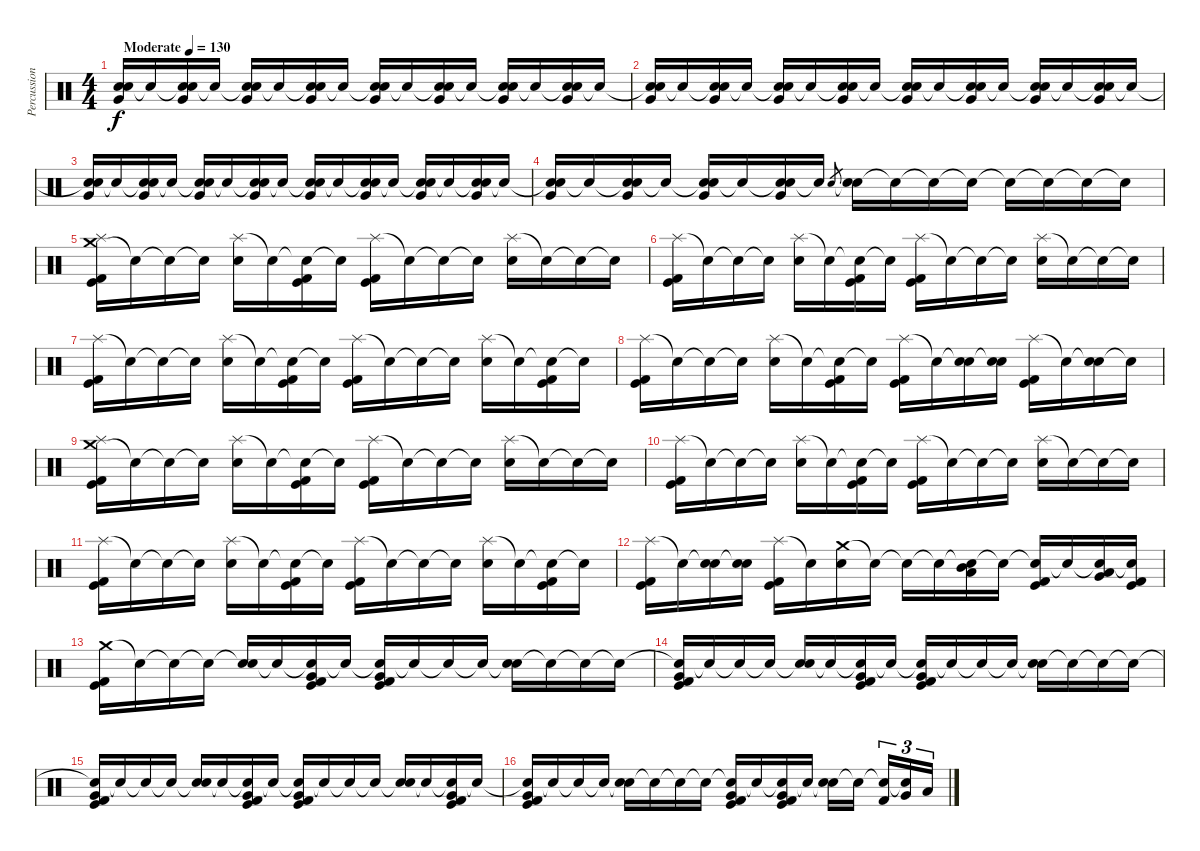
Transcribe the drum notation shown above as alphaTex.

\track ("Percussion" "Percussion") {instrument percussion}
\staff {score}
\articulation defaults
\ts (4 4)
\tempo (130 "Moderate")
\clef neutral
\ks c
("Snare (hit)" "Electric Snare (hit)" "Very Low Tom (hit)").16{dy f volume 4} "Snare (hit)"{t}.16 ("Snare (hit)"{t} "Electric Snare (hit)" "Very Low Tom (hit)").16{volume 8} "Snare (hit)"{t}.16 ("Snare (hit)"{t} "Electric Snare (hit)" "Very Low Tom (hit)").16 "Snare (hit)"{t}.16 ("Snare (hit)"{t} "Electric Snare (hit)" "Very Low Tom (hit)").16 "Snare (hit)"{t}.16 ("Snare (hit)"{t} "Electric Snare (hit)" "Very Low Tom (hit)").16 "Snare (hit)"{t}.16 ("Snare (hit)"{t} "Electric Snare (hit)" "Very Low Tom (hit)").16 "Snare (hit)"{t}.16 ("Snare (hit)"{t} "Electric Snare (hit)" "Very Low Tom (hit)").16 "Snare (hit)"{t}.16 ("Snare (hit)"{t} "Electric Snare (hit)" "Very Low Tom (hit)").16 "Snare (hit)"{t}.16 |
("Snare (hit)"{t} "Electric Snare (hit)" "Very Low Tom (hit)").16{volume 6} "Snare (hit)"{t}.16 ("Snare (hit)"{t} "Electric Snare (hit)" "Very Low Tom (hit)").16{volume 10} "Snare (hit)"{t}.16 ("Snare (hit)"{t} "Electric Snare (hit)" "Very Low Tom (hit)").16 "Snare (hit)"{t}.16 ("Snare (hit)"{t} "Electric Snare (hit)" "Very Low Tom (hit)").16 "Snare (hit)"{t}.16 ("Snare (hit)"{t} "Electric Snare (hit)" "Very Low Tom (hit)").16 "Snare (hit)"{t}.16 ("Snare (hit)"{t} "Electric Snare (hit)" "Very Low Tom (hit)").16 "Snare (hit)"{t}.16 ("Snare (hit)"{t} "Electric Snare (hit)" "Very Low Tom (hit)").16 "Snare (hit)"{t}.16 ("Snare (hit)"{t} "Electric Snare (hit)" "Very Low Tom (hit)").16 "Snare (hit)"{t}.16 |
("Snare (hit)"{t} "Electric Snare (hit)" "Very Low Tom (hit)").16{volume 8} "Snare (hit)"{t}.16 ("Snare (hit)"{t} "Electric Snare (hit)" "Very Low Tom (hit)").16{volume 12} "Snare (hit)"{t}.16 ("Snare (hit)"{t} "Electric Snare (hit)" "Very Low Tom (hit)").16 "Snare (hit)"{t}.16 ("Snare (hit)"{t} "Electric Snare (hit)" "Very Low Tom (hit)").16 "Snare (hit)"{t}.16 ("Snare (hit)"{t} "Electric Snare (hit)" "Very Low Tom (hit)").16 "Snare (hit)"{t}.16 ("Snare (hit)"{t} "Electric Snare (hit)" "Very Low Tom (hit)").16 "Snare (hit)"{t}.16 ("Snare (hit)"{t} "Electric Snare (hit)" "Very Low Tom (hit)").16 "Snare (hit)"{t}.16 ("Snare (hit)"{t} "Electric Snare (hit)" "Very Low Tom (hit)").16 "Snare (hit)"{t}.16 |
("Snare (hit)"{t} "Electric Snare (hit)" "Very Low Tom (hit)").16{volume 10} "Snare (hit)"{t}.16 ("Snare (hit)"{t} "Electric Snare (hit)" "Very Low Tom (hit)").16{volume 16} "Snare (hit)"{t}.16 ("Snare (hit)"{t} "Electric Snare (hit)" "Very Low Tom (hit)").16 "Snare (hit)"{t}.16 ("Snare (hit)"{t} "Electric Snare (hit)" "Very Low Tom (hit)").16 "Snare (hit)"{t}.16 "Electric Snare (hit)".8{gr} ("Snare (hit)"{t} "Electric Snare (hit)").16 "Snare (hit)"{t}.16 "Snare (hit)"{t}.16 "Snare (hit)"{t}.16 "Snare (hit)"{t}.16 "Snare (hit)"{t}.16 "Snare (hit)"{t}.16 "Snare (hit)"{t}.16 |
("Crash medium (hit)" "Splash (hit)" "Kick (hit)" "Kick (hit) 2").16 "Snare (hit)"{t}.16 "Snare (hit)"{t}.16 "Snare (hit)"{t}.16 ("Splash (hit)" "Electric Snare (hit)").16 "Snare (hit)"{t}.16 ("Snare (hit)"{t} "Kick (hit)" "Kick (hit) 2").16 "Snare (hit)"{t}.16 ("Splash (hit)" "Kick (hit)" "Kick (hit) 2").16 "Snare (hit)"{t}.16 "Snare (hit)"{t}.16 "Snare (hit)"{t}.16 ("Splash (hit)" "Electric Snare (hit)").16 "Snare (hit)"{t}.16 "Snare (hit)"{t}.16 "Snare (hit)"{t}.16 |
("Splash (hit)" "Kick (hit)" "Kick (hit) 2").16 "Snare (hit)"{t}.16 "Snare (hit)"{t}.16 "Snare (hit)"{t}.16 ("Splash (hit)" "Electric Snare (hit)").16 "Snare (hit)"{t}.16 ("Snare (hit)"{t} "Kick (hit)" "Kick (hit) 2").16 "Snare (hit)"{t}.16 ("Splash (hit)" "Kick (hit)" "Kick (hit) 2").16 "Snare (hit)"{t}.16 "Snare (hit)"{t}.16 "Snare (hit)"{t}.16 ("Splash (hit)" "Electric Snare (hit)").16 "Snare (hit)"{t}.16 "Snare (hit)"{t}.16 "Snare (hit)"{t}.16 |
("Splash (hit)" "Kick (hit)" "Kick (hit) 2").16 "Snare (hit)"{t}.16 "Snare (hit)"{t}.16 "Snare (hit)"{t}.16 ("Splash (hit)" "Electric Snare (hit)").16 "Snare (hit)"{t}.16 ("Snare (hit)"{t} "Kick (hit)" "Kick (hit) 2").16 "Snare (hit)"{t}.16 ("Splash (hit)" "Kick (hit)" "Kick (hit) 2").16 "Snare (hit)"{t}.16 "Snare (hit)"{t}.16 "Snare (hit)"{t}.16 ("Splash (hit)" "Electric Snare (hit)").16 "Snare (hit)"{t}.16 ("Snare (hit)"{t} "Kick (hit)" "Kick (hit) 2").16 "Snare (hit)"{t}.16 |
("Splash (hit)" "Kick (hit)" "Kick (hit) 2").16 "Snare (hit)"{t}.16 "Snare (hit)"{t}.16 "Snare (hit)"{t}.16 ("Splash (hit)" "Electric Snare (hit)").16 "Snare (hit)"{t}.16 ("Snare (hit)"{t} "Kick (hit)" "Kick (hit) 2").16 "Snare (hit)"{t}.16 ("Splash (hit)" "Kick (hit)" "Kick (hit) 2").16 "Snare (hit)"{t}.16 ("Snare (hit)"{t} "Electric Snare (hit)").16 ("Snare (hit)"{t} "Electric Snare (hit)").16 ("Splash (hit)" "Kick (hit)" "Kick (hit) 2").16 "Snare (hit)"{t}.16 ("Snare (hit)"{t} "Electric Snare (hit)").16 "Snare (hit)"{t}.16 |
("Crash medium (hit)" "Splash (hit)" "Kick (hit)" "Kick (hit) 2").16 "Snare (hit)"{t}.16 "Snare (hit)"{t}.16 "Snare (hit)"{t}.16 ("Splash (hit)" "Electric Snare (hit)").16 "Snare (hit)"{t}.16 ("Snare (hit)"{t} "Kick (hit)" "Kick (hit) 2").16 "Snare (hit)"{t}.16 ("Splash (hit)" "Kick (hit)" "Kick (hit) 2").16 "Snare (hit)"{t}.16 "Snare (hit)"{t}.16 "Snare (hit)"{t}.16 ("Splash (hit)" "Electric Snare (hit)").16 "Snare (hit)"{t}.16 "Snare (hit)"{t}.16 "Snare (hit)"{t}.16 |
("Splash (hit)" "Kick (hit)" "Kick (hit) 2").16 "Snare (hit)"{t}.16 "Snare (hit)"{t}.16 "Snare (hit)"{t}.16 ("Splash (hit)" "Electric Snare (hit)").16 "Snare (hit)"{t}.16 ("Snare (hit)"{t} "Kick (hit)" "Kick (hit) 2").16 "Snare (hit)"{t}.16 ("Splash (hit)" "Kick (hit)" "Kick (hit) 2").16 "Snare (hit)"{t}.16 "Snare (hit)"{t}.16 "Snare (hit)"{t}.16 ("Splash (hit)" "Electric Snare (hit)").16 "Snare (hit)"{t}.16 "Snare (hit)"{t}.16 "Snare (hit)"{t}.16 |
("Splash (hit)" "Kick (hit)" "Kick (hit) 2").16 "Snare (hit)"{t}.16 "Snare (hit)"{t}.16 "Snare (hit)"{t}.16 ("Splash (hit)" "Electric Snare (hit)").16 "Snare (hit)"{t}.16 ("Snare (hit)"{t} "Kick (hit)" "Kick (hit) 2").16 "Snare (hit)"{t}.16 ("Splash (hit)" "Kick (hit)" "Kick (hit) 2").16 "Snare (hit)"{t}.16 "Snare (hit)"{t}.16 "Snare (hit)"{t}.16 ("Splash (hit)" "Electric Snare (hit)").16 "Snare (hit)"{t}.16 ("Snare (hit)"{t} "Kick (hit)" "Kick (hit) 2").16 "Snare (hit)"{t}.16 |
("Splash (hit)" "Kick (hit)" "Kick (hit) 2").16 "Snare (hit)"{t}.16 ("Snare (hit)"{t} "Electric Snare (hit)").16 ("Snare (hit)"{t} "Electric Snare (hit)").16 ("Splash (hit)" "Kick (hit)" "Kick (hit) 2").16 "Snare (hit)"{t}.16 ("Crash medium (hit)" "Electric Snare (hit)").16 "Snare (hit)"{t}.16 "Snare (hit)"{t}.16 "Snare (hit)"{t}.16 ("Snare (hit)"{t} "Mid Tom (hit)" "Low Tom (hit)").16 "Snare (hit)"{t}.16 ("Snare (hit)"{t} "Kick (hit)" "Kick (hit) 2").16 "Snare (hit)"{t}.16 ("Snare (hit)"{t} "Low Tom (hit)" "Very Low Tom (hit)").16 ("Snare (hit)"{t} "Kick (hit)" "Kick (hit) 2").16 |
("Crash medium (hit)" "Kick (hit)" "Kick (hit) 2").16 "Snare (hit)"{t}.16 "Snare (hit)"{t}.16 "Snare (hit)"{t}.16 ("Snare (hit)"{t} "Electric Snare (hit)").16 "Snare (hit)"{t}.16 ("Snare (hit)"{t} "Very Low Tom (hit)" "Kick (hit)" "Kick (hit) 2").16 "Snare (hit)"{t}.16 ("Snare (hit)"{t} "Very Low Tom (hit)" "Kick (hit)" "Kick (hit) 2").16 "Snare (hit)"{t}.16 "Snare (hit)"{t}.16 "Snare (hit)"{t}.16 ("Snare (hit)"{t} "Electric Snare (hit)").16 "Snare (hit)"{t}.16 "Snare (hit)"{t}.16 "Snare (hit)"{t}.16 |
("Snare (hit)"{t} "Very Low Tom (hit)" "Kick (hit)" "Kick (hit) 2").16 "Snare (hit)"{t}.16 "Snare (hit)"{t}.16 "Snare (hit)"{t}.16 ("Snare (hit)"{t} "Electric Snare (hit)").16 "Snare (hit)"{t}.16 ("Snare (hit)"{t} "Very Low Tom (hit)" "Kick (hit)" "Kick (hit) 2").16 "Snare (hit)"{t}.16 ("Snare (hit)"{t} "Very Low Tom (hit)" "Kick (hit)" "Kick (hit) 2").16 "Snare (hit)"{t}.16 "Snare (hit)"{t}.16 "Snare (hit)"{t}.16 ("Snare (hit)"{t} "Electric Snare (hit)").16 "Snare (hit)"{t}.16 "Snare (hit)"{t}.16 "Snare (hit)"{t}.16 |
("Snare (hit)"{t} "Very Low Tom (hit)" "Kick (hit)" "Kick (hit) 2").16 "Snare (hit)"{t}.16 "Snare (hit)"{t}.16 "Snare (hit)"{t}.16 ("Snare (hit)"{t} "Electric Snare (hit)").16 "Snare (hit)"{t}.16 ("Snare (hit)"{t} "Very Low Tom (hit)" "Kick (hit)" "Kick (hit) 2").16 "Snare (hit)"{t}.16 ("Snare (hit)"{t} "Very Low Tom (hit)" "Kick (hit)" "Kick (hit) 2").16 "Snare (hit)"{t}.16 "Snare (hit)"{t}.16 "Snare (hit)"{t}.16 ("Snare (hit)"{t} "Electric Snare (hit)").16 "Snare (hit)"{t}.16 ("Snare (hit)"{t} "Very Low Tom (hit)" "Kick (hit)" "Kick (hit) 2").16 "Snare (hit)"{t}.16 |
("Snare (hit)"{t} "Very Low Tom (hit)" "Kick (hit)" "Kick (hit) 2").16 "Snare (hit)"{t}.16 "Snare (hit)"{t}.16 "Snare (hit)"{t}.16 ("Snare (hit)"{t} "Electric Snare (hit)").16 "Snare (hit)"{t}.16 "Snare (hit)"{t}.16 "Snare (hit)"{t}.16 ("Snare (hit)"{t} "Very Low Tom (hit)" "Kick (hit)" "Kick (hit) 2").16 "Snare (hit)"{t}.16 ("Snare (hit)"{t} "Very Low Tom (hit)" "Kick (hit)" "Kick (hit) 2").16 "Snare (hit)"{t}.16 ("Snare (hit)"{t} "Electric Snare (hit)").16 "Snare (hit)"{t}.16{beam splitsecondary} ("Snare (hit)"{t} "Kick (hit) 2").16{tu (3 2)} ("Snare (hit)"{t} "Very Low Tom (hit)").16{tu (3 2)} "Low Tom (hit)".16{tu (3 2)}
